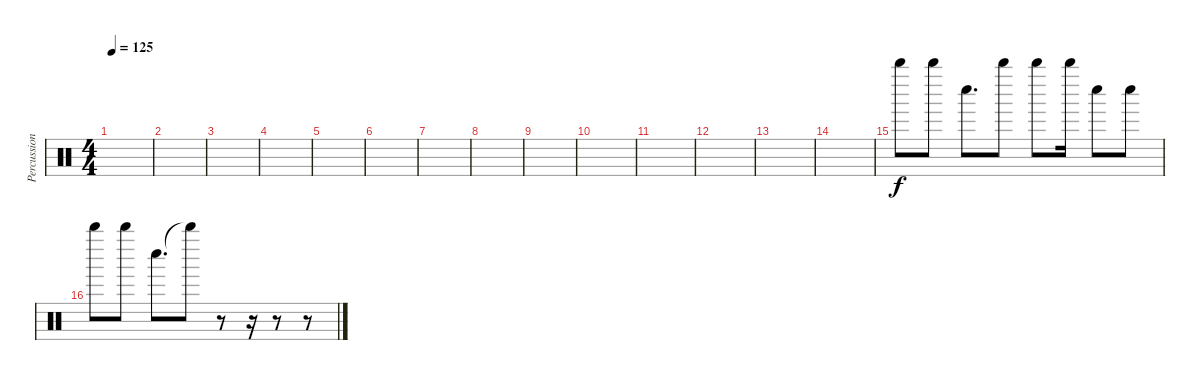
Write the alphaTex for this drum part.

\track ("Percussion" "Percussion") {instrument percussion}
\staff {score}
\articulation defaults
\ts (4 4)
\tempo 125
\clef neutral
\ks c
|
|
|
|
|
|
|
|
|
|
|
|
|
|
"Whistle high (hit)".8 "Whistle high (hit)".8 "Whistle low (hit)".8{d} "Whistle high (hit)".8 "Whistle high (hit)".8 "Whistle high (hit)".16 "Whistle low (hit)".8 "Whistle low (hit)".8 |
"Whistle high (hit)".8 "Whistle high (hit)".8 "Whistle low (hit)".8{d} "Whistle high (hit)"{t}.8 r.8 r.16 r.8 r.8
